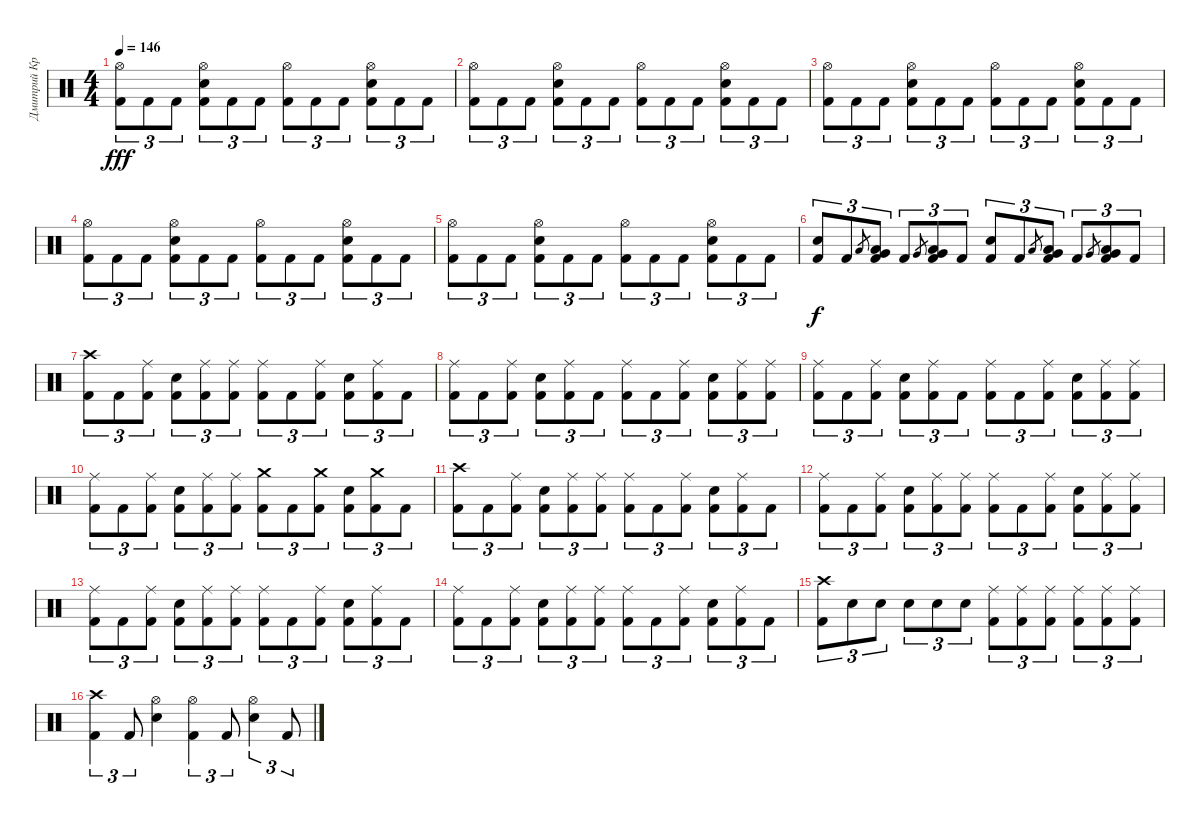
\track ("Дмитрий Кривенков" "Дмитрий Кр") {instrument percussion}
\staff {score}
\articulation defaults
\ts (4 4)
\tempo 146
\clef neutral
\ks c
("Hi-Hat (open)" "Kick (hit) 2").8{tu (3 2) dy fff} "Kick (hit) 2".8{tu (3 2)} "Kick (hit) 2".8{tu (3 2)} ("Hi-Hat (open)" "Electric Snare (hit)" "Kick (hit) 2").8{tu (3 2)} "Kick (hit) 2".8{tu (3 2)} "Kick (hit) 2".8{tu (3 2)} ("Hi-Hat (open)" "Kick (hit) 2").8{tu (3 2)} "Kick (hit) 2".8{tu (3 2)} "Kick (hit) 2".8{tu (3 2)} ("Hi-Hat (open)" "Electric Snare (hit)" "Kick (hit) 2").8{tu (3 2)} "Kick (hit) 2".8{tu (3 2)} "Kick (hit) 2".8{tu (3 2)} |
("Hi-Hat (open)" "Kick (hit) 2").8{tu (3 2)} "Kick (hit) 2".8{tu (3 2)} "Kick (hit) 2".8{tu (3 2)} ("Hi-Hat (open)" "Electric Snare (hit)" "Kick (hit) 2").8{tu (3 2)} "Kick (hit) 2".8{tu (3 2)} "Kick (hit) 2".8{tu (3 2)} ("Hi-Hat (open)" "Kick (hit) 2").8{tu (3 2)} "Kick (hit) 2".8{tu (3 2)} "Kick (hit) 2".8{tu (3 2)} ("Hi-Hat (open)" "Electric Snare (hit)" "Kick (hit) 2").8{tu (3 2)} "Kick (hit) 2".8{tu (3 2)} "Kick (hit) 2".8{tu (3 2)} |
("Hi-Hat (open)" "Kick (hit) 2").8{tu (3 2)} "Kick (hit) 2".8{tu (3 2)} "Kick (hit) 2".8{tu (3 2)} ("Hi-Hat (open)" "Electric Snare (hit)" "Kick (hit) 2").8{tu (3 2)} "Kick (hit) 2".8{tu (3 2)} "Kick (hit) 2".8{tu (3 2)} ("Hi-Hat (open)" "Kick (hit) 2").8{tu (3 2)} "Kick (hit) 2".8{tu (3 2)} "Kick (hit) 2".8{tu (3 2)} ("Hi-Hat (open)" "Electric Snare (hit)" "Kick (hit) 2").8{tu (3 2)} "Kick (hit) 2".8{tu (3 2)} "Kick (hit) 2".8{tu (3 2)} |
("Hi-Hat (open)" "Kick (hit) 2").8{tu (3 2)} "Kick (hit) 2".8{tu (3 2)} "Kick (hit) 2".8{tu (3 2)} ("Hi-Hat (open)" "Electric Snare (hit)" "Kick (hit) 2").8{tu (3 2)} "Kick (hit) 2".8{tu (3 2)} "Kick (hit) 2".8{tu (3 2)} ("Hi-Hat (open)" "Kick (hit) 2").8{tu (3 2)} "Kick (hit) 2".8{tu (3 2)} "Kick (hit) 2".8{tu (3 2)} ("Hi-Hat (open)" "Electric Snare (hit)" "Kick (hit) 2").8{tu (3 2)} "Kick (hit) 2".8{tu (3 2)} "Kick (hit) 2".8{tu (3 2)} |
("Hi-Hat (open)" "Kick (hit) 2").8{tu (3 2)} "Kick (hit) 2".8{tu (3 2)} "Kick (hit) 2".8{tu (3 2)} ("Hi-Hat (open)" "Electric Snare (hit)" "Kick (hit) 2").8{tu (3 2)} "Kick (hit) 2".8{tu (3 2)} "Kick (hit) 2".8{tu (3 2)} ("Hi-Hat (open)" "Kick (hit) 2").8{tu (3 2)} "Kick (hit) 2".8{tu (3 2)} "Kick (hit) 2".8{tu (3 2)} ("Hi-Hat (open)" "Electric Snare (hit)" "Kick (hit) 2").8{tu (3 2)} "Kick (hit) 2".8{tu (3 2)} "Kick (hit) 2".8{tu (3 2)} |
("Electric Snare (hit)" "Kick (hit) 2").8{tu (3 2) dy f} "Kick (hit) 2".8{tu (3 2)} "Low Tom (hit)".8{gr} ("Low Tom (hit)" "Very Low Tom (hit)" "Kick (hit) 2").8{tu (3 2)} "Kick (hit) 2".8{tu (3 2)} "Very Low Tom (hit)".8{gr} ("Very Low Tom (hit)" "Low Floor Tom (hit)" "Kick (hit) 2").8{tu (3 2)} "Kick (hit) 2".8{tu (3 2)} ("Electric Snare (hit)" "Kick (hit) 2").8{tu (3 2)} "Kick (hit) 2".8{tu (3 2)} "Low Tom (hit)".8{gr} ("Low Tom (hit)" "Very Low Tom (hit)" "Kick (hit) 2").8{tu (3 2)} "Kick (hit) 2".8{tu (3 2)} "Very Low Tom (hit)".8{gr} ("Very Low Tom (hit)" "Low Floor Tom (hit)" "Kick (hit) 2").8{tu (3 2)} "Kick (hit) 2".8{tu (3 2)} |
("Crash high (hit)" "Kick (hit) 2").8{tu (3 2)} "Kick (hit) 2".8{tu (3 2)} ("Ride (middle)" "Kick (hit) 2").8{tu (3 2)} ("Electric Snare (hit)" "Kick (hit) 2").8{tu (3 2)} ("Ride (middle)" "Kick (hit) 2").8{tu (3 2)} ("Ride (middle)" "Kick (hit) 2").8{tu (3 2)} ("Ride (middle)" "Kick (hit) 2").8{tu (3 2)} "Kick (hit) 2".8{tu (3 2)} ("Ride (middle)" "Kick (hit) 2").8{tu (3 2)} ("Electric Snare (hit)" "Kick (hit) 2").8{tu (3 2)} ("Ride (middle)" "Kick (hit) 2").8{tu (3 2)} "Kick (hit) 2".8{tu (3 2)} |
("Ride (middle)" "Kick (hit) 2").8{tu (3 2)} "Kick (hit) 2".8{tu (3 2)} ("Ride (middle)" "Kick (hit) 2").8{tu (3 2)} ("Electric Snare (hit)" "Kick (hit) 2").8{tu (3 2)} ("Ride (middle)" "Kick (hit) 2").8{tu (3 2)} "Kick (hit) 2".8{tu (3 2)} ("Ride (middle)" "Kick (hit) 2").8{tu (3 2)} "Kick (hit) 2".8{tu (3 2)} ("Ride (middle)" "Kick (hit) 2").8{tu (3 2)} ("Electric Snare (hit)" "Kick (hit) 2").8{tu (3 2)} ("Ride (middle)" "Kick (hit) 2").8{tu (3 2)} ("Ride (middle)" "Kick (hit) 2").8{tu (3 2)} |
("Ride (middle)" "Kick (hit) 2").8{tu (3 2)} "Kick (hit) 2".8{tu (3 2)} ("Ride (middle)" "Kick (hit) 2").8{tu (3 2)} ("Electric Snare (hit)" "Kick (hit) 2").8{tu (3 2)} ("Ride (middle)" "Kick (hit) 2").8{tu (3 2)} "Kick (hit) 2".8{tu (3 2)} ("Ride (middle)" "Kick (hit) 2").8{tu (3 2)} "Kick (hit) 2".8{tu (3 2)} ("Ride (middle)" "Kick (hit) 2").8{tu (3 2)} ("Electric Snare (hit)" "Kick (hit) 2").8{tu (3 2)} ("Ride (middle)" "Kick (hit) 2").8{tu (3 2)} ("Ride (middle)" "Kick (hit) 2").8{tu (3 2)} |
("Ride (middle)" "Kick (hit) 2").8{tu (3 2)} "Kick (hit) 2".8{tu (3 2)} ("Ride (middle)" "Kick (hit) 2").8{tu (3 2)} ("Electric Snare (hit)" "Kick (hit) 2").8{tu (3 2)} ("Ride (middle)" "Kick (hit) 2").8{tu (3 2)} ("Ride (middle)" "Kick (hit) 2").8{tu (3 2)} ("Crash medium (hit)" "Kick (hit) 2").8{tu (3 2)} "Kick (hit) 2".8{tu (3 2)} ("Crash medium (hit)" "Kick (hit) 2").8{tu (3 2)} ("Electric Snare (hit)" "Kick (hit) 2").8{tu (3 2)} ("Crash medium (hit)" "Kick (hit) 2").8{tu (3 2)} "Kick (hit) 2".8{tu (3 2)} |
("Crash high (hit)" "Kick (hit) 2").8{tu (3 2)} "Kick (hit) 2".8{tu (3 2)} ("Ride (middle)" "Kick (hit) 2").8{tu (3 2)} ("Electric Snare (hit)" "Kick (hit) 2").8{tu (3 2)} ("Ride (middle)" "Kick (hit) 2").8{tu (3 2)} ("Ride (middle)" "Kick (hit) 2").8{tu (3 2)} ("Ride (middle)" "Kick (hit) 2").8{tu (3 2)} "Kick (hit) 2".8{tu (3 2)} ("Ride (middle)" "Kick (hit) 2").8{tu (3 2)} ("Electric Snare (hit)" "Kick (hit) 2").8{tu (3 2)} ("Ride (middle)" "Kick (hit) 2").8{tu (3 2)} "Kick (hit) 2".8{tu (3 2)} |
("Ride (middle)" "Kick (hit) 2").8{tu (3 2)} "Kick (hit) 2".8{tu (3 2)} ("Ride (middle)" "Kick (hit) 2").8{tu (3 2)} ("Electric Snare (hit)" "Kick (hit) 2").8{tu (3 2)} ("Ride (middle)" "Kick (hit) 2").8{tu (3 2)} ("Ride (middle)" "Kick (hit) 2").8{tu (3 2)} ("Ride (middle)" "Kick (hit) 2").8{tu (3 2)} "Kick (hit) 2".8{tu (3 2)} ("Ride (middle)" "Kick (hit) 2").8{tu (3 2)} ("Electric Snare (hit)" "Kick (hit) 2").8{tu (3 2)} ("Ride (middle)" "Kick (hit) 2").8{tu (3 2)} ("Ride (middle)" "Kick (hit) 2").8{tu (3 2)} |
("Ride (middle)" "Kick (hit) 2").8{tu (3 2)} "Kick (hit) 2".8{tu (3 2)} ("Ride (middle)" "Kick (hit) 2").8{tu (3 2)} ("Electric Snare (hit)" "Kick (hit) 2").8{tu (3 2)} ("Ride (middle)" "Kick (hit) 2").8{tu (3 2)} ("Ride (middle)" "Kick (hit) 2").8{tu (3 2)} ("Ride (middle)" "Kick (hit) 2").8{tu (3 2)} "Kick (hit) 2".8{tu (3 2)} ("Ride (middle)" "Kick (hit) 2").8{tu (3 2)} ("Electric Snare (hit)" "Kick (hit) 2").8{tu (3 2)} ("Ride (middle)" "Kick (hit) 2").8{tu (3 2)} "Kick (hit) 2".8{tu (3 2)} |
("Ride (middle)" "Kick (hit) 2").8{tu (3 2)} "Kick (hit) 2".8{tu (3 2)} ("Ride (middle)" "Kick (hit) 2").8{tu (3 2)} ("Electric Snare (hit)" "Kick (hit) 2").8{tu (3 2)} ("Ride (middle)" "Kick (hit) 2").8{tu (3 2)} ("Ride (middle)" "Kick (hit) 2").8{tu (3 2)} ("Ride (middle)" "Kick (hit) 2").8{tu (3 2)} "Kick (hit) 2".8{tu (3 2)} ("Ride (middle)" "Kick (hit) 2").8{tu (3 2)} ("Electric Snare (hit)" "Kick (hit) 2").8{tu (3 2)} ("Ride (middle)" "Kick (hit) 2").8{tu (3 2)} "Kick (hit) 2".8{tu (3 2)} |
("Crash high (hit)" "Kick (hit) 2").8{tu (3 2)} "Electric Snare (hit)".8{tu (3 2)} "Electric Snare (hit)".8{tu (3 2)} "Electric Snare (hit)".8{tu (3 2)} "Electric Snare (hit)".8{tu (3 2)} "Electric Snare (hit)".8{tu (3 2)} ("Ride (middle)" "Kick (hit) 2").8{tu (3 2)} ("Ride (middle)" "Kick (hit) 2").8{tu (3 2)} ("Ride (middle)" "Kick (hit) 2").8{tu (3 2)} ("Ride (middle)" "Kick (hit) 2").8{tu (3 2)} ("Ride (middle)" "Kick (hit) 2").8{tu (3 2)} ("Ride (middle)" "Kick (hit) 2").8{tu (3 2)} |
("Crash high (hit)" "Kick (hit) 2").4{tu (3 2)} "Kick (hit) 2".8{tu (3 2)} ("Hi-Hat (open)" "Electric Snare (hit)").4 ("Hi-Hat (open)" "Kick (hit) 2").4{tu (3 2)} "Kick (hit) 2".8{tu (3 2)} ("Hi-Hat (open)" "Electric Snare (hit)").4{tu (3 2)} "Kick (hit) 2".8{tu (3 2)}
